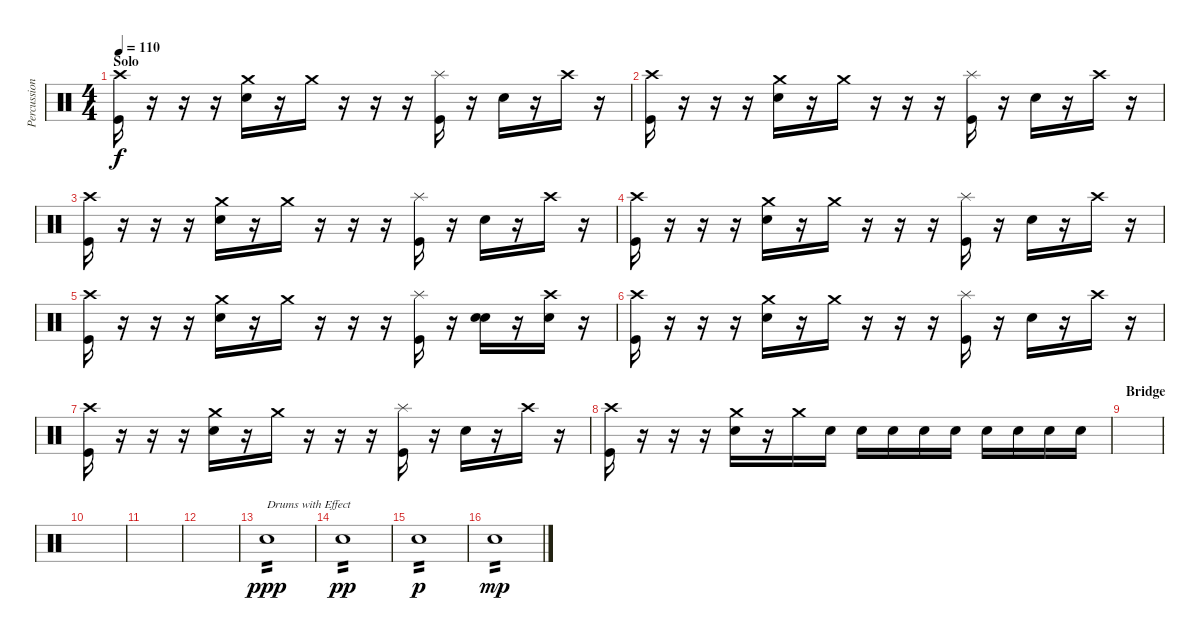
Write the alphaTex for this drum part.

\track ("Percussions" "Percussion") {instrument percussion}
\staff {score}
\articulation defaults
\ts (4 4)
\section ("" "Solo")
\tempo 110
\clef neutral
\ks c
("Crash high (hit)" "Kick (hit)").16{dy f} r.16 r.16 r.16 ("Crash medium (hit)" "Electric Snare (hit)").16 r.16 "Crash medium (hit)".16 r.16 r.16 r.16 ("Splash (hit)" "Kick (hit)").16 r.16 "Electric Snare (hit)".16 r.16 "Crash high (hit)".16 r.16 |
("Crash high (hit)" "Kick (hit)").16 r.16 r.16 r.16 ("Crash medium (hit)" "Electric Snare (hit)").16 r.16 "Crash medium (hit)".16 r.16 r.16 r.16 ("Splash (hit)" "Kick (hit)").16 r.16 "Electric Snare (hit)".16 r.16 "Crash high (hit)".16 r.16 |
("Crash high (hit)" "Kick (hit)").16 r.16 r.16 r.16 ("Crash medium (hit)" "Electric Snare (hit)").16 r.16 "Crash medium (hit)".16 r.16 r.16 r.16 ("Splash (hit)" "Kick (hit)").16 r.16 "Electric Snare (hit)".16 r.16 "Crash high (hit)".16 r.16 |
("Crash high (hit)" "Kick (hit)").16 r.16 r.16 r.16 ("Crash medium (hit)" "Electric Snare (hit)").16 r.16 "Crash medium (hit)".16 r.16 r.16 r.16 ("Splash (hit)" "Kick (hit)").16 r.16 "Electric Snare (hit)".16 r.16 "Crash high (hit)".16 r.16 |
("Crash high (hit)" "Kick (hit)").16 r.16 r.16 r.16 ("Crash medium (hit)" "Electric Snare (hit)").16 r.16 "Crash medium (hit)".16 r.16 r.16 r.16 ("Splash (hit)" "Kick (hit)").16 r.16 ("Electric Snare (hit)" "Snare (hit) 2").16 r.16 ("Crash high (hit)" "Electric Snare (hit)").16 r.16 |
("Crash high (hit)" "Kick (hit)").16 r.16 r.16 r.16 ("Crash medium (hit)" "Electric Snare (hit)").16 r.16 "Crash medium (hit)".16 r.16 r.16 r.16 ("Splash (hit)" "Kick (hit)").16 r.16 "Electric Snare (hit)".16 r.16 "Crash high (hit)".16 r.16 |
("Crash high (hit)" "Kick (hit)").16 r.16 r.16 r.16 ("Crash medium (hit)" "Electric Snare (hit)").16 r.16 "Crash medium (hit)".16 r.16 r.16 r.16 ("Splash (hit)" "Kick (hit)").16 r.16 "Electric Snare (hit)".16 r.16 "Crash high (hit)".16 r.16 |
("Crash high (hit)" "Kick (hit)").16 r.16 r.16 r.16 ("Crash medium (hit)" "Electric Snare (hit)").16 r.16 "Crash medium (hit)".16 "Electric Snare (hit)".16 "Electric Snare (hit)".16 "Electric Snare (hit)".16 "Electric Snare (hit)".16 "Electric Snare (hit)".16 "Electric Snare (hit)".16 "Electric Snare (hit)".16 "Electric Snare (hit)".16 "Electric Snare (hit)".16 |
\section ("" "Bridge")
|
|
|
|
"Electric Snare (hit)".1{txt "Drums with Effect" tp 2 dy ppp} |
"Electric Snare (hit)".1{tp 2 dy pp} |
"Electric Snare (hit)".1{tp 2 dy p} |
"Electric Snare (hit)".1{tp 2 dy mp}
